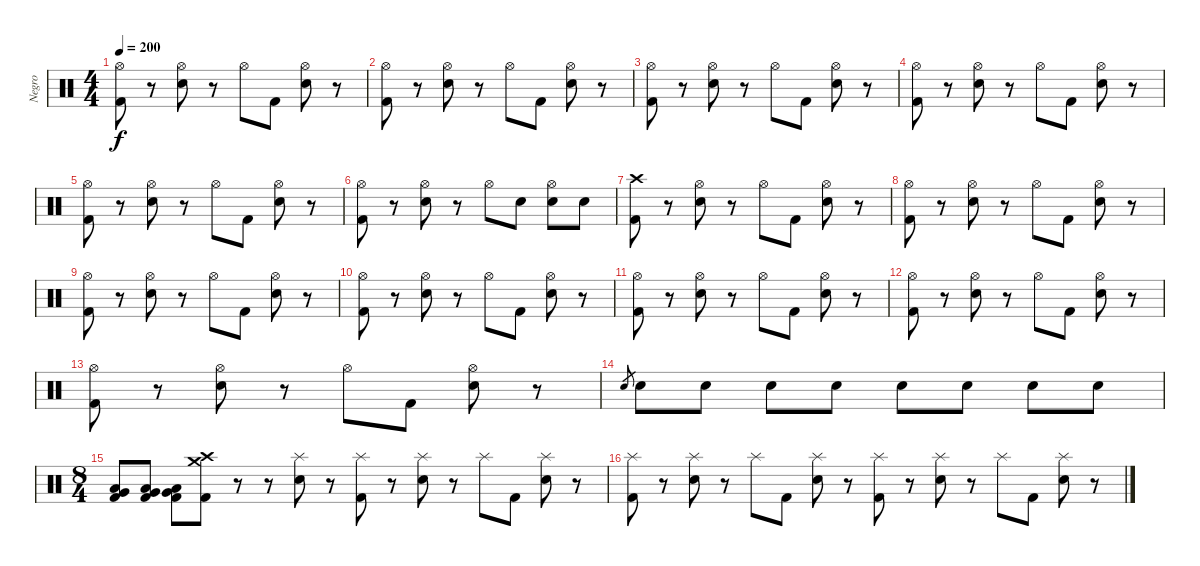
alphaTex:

\track ("Negro" "Negro") {instrument percussion}
\staff {score}
\articulation defaults
\ts (4 4)
\tempo 200
\clef neutral
\ks c
("Hi-Hat (open)" "Kick (hit) 2").8{dy f} r.8 ("Hi-Hat (open)" "Electric Snare (hit)").8 r.8 "Hi-Hat (open)".8 "Kick (hit) 2".8 ("Hi-Hat (open)" "Electric Snare (hit)").8 r.8 |
("Hi-Hat (open)" "Kick (hit) 2").8 r.8 ("Hi-Hat (open)" "Electric Snare (hit)").8 r.8 "Hi-Hat (open)".8 "Kick (hit) 2".8 ("Hi-Hat (open)" "Electric Snare (hit)").8 r.8 |
("Hi-Hat (open)" "Kick (hit) 2").8 r.8 ("Hi-Hat (open)" "Electric Snare (hit)").8 r.8 "Hi-Hat (open)".8 "Kick (hit) 2".8 ("Hi-Hat (open)" "Electric Snare (hit)").8 r.8 |
("Hi-Hat (open)" "Kick (hit) 2").8 r.8 ("Hi-Hat (open)" "Electric Snare (hit)").8 r.8 "Hi-Hat (open)".8 "Kick (hit) 2".8 ("Hi-Hat (open)" "Electric Snare (hit)").8 r.8 |
("Hi-Hat (open)" "Kick (hit) 2").8 r.8 ("Hi-Hat (open)" "Electric Snare (hit)").8 r.8 "Hi-Hat (open)".8 "Kick (hit) 2".8 ("Hi-Hat (open)" "Electric Snare (hit)").8 r.8 |
("Hi-Hat (open)" "Kick (hit) 2").8 r.8 ("Hi-Hat (open)" "Electric Snare (hit)").8 r.8 "Hi-Hat (open)".8 "Electric Snare (hit)".8 ("Hi-Hat (open)" "Electric Snare (hit)").8 "Electric Snare (hit)".8 |
("Crash high (hit)" "Kick (hit) 2").8 r.8 ("Hi-Hat (open)" "Electric Snare (hit)").8 r.8 "Hi-Hat (open)".8 "Kick (hit) 2".8 ("Hi-Hat (open)" "Electric Snare (hit)").8 r.8 |
("Hi-Hat (open)" "Kick (hit) 2").8 r.8 ("Hi-Hat (open)" "Electric Snare (hit)").8 r.8 "Hi-Hat (open)".8 "Kick (hit) 2".8 ("Hi-Hat (open)" "Electric Snare (hit)").8 r.8 |
("Hi-Hat (open)" "Kick (hit) 2").8 r.8 ("Hi-Hat (open)" "Electric Snare (hit)").8 r.8 "Hi-Hat (open)".8 "Kick (hit) 2".8 ("Hi-Hat (open)" "Electric Snare (hit)").8 r.8 |
("Hi-Hat (open)" "Kick (hit) 2").8 r.8 ("Hi-Hat (open)" "Electric Snare (hit)").8 r.8 "Hi-Hat (open)".8 "Kick (hit) 2".8 ("Hi-Hat (open)" "Electric Snare (hit)").8 r.8 |
("Hi-Hat (open)" "Kick (hit) 2").8 r.8 ("Hi-Hat (open)" "Electric Snare (hit)").8 r.8 "Hi-Hat (open)".8 "Kick (hit) 2".8 ("Hi-Hat (open)" "Electric Snare (hit)").8 r.8 |
("Hi-Hat (open)" "Kick (hit) 2").8 r.8 ("Hi-Hat (open)" "Electric Snare (hit)").8 r.8 "Hi-Hat (open)".8 "Kick (hit) 2".8 ("Hi-Hat (open)" "Electric Snare (hit)").8 r.8 |
("Hi-Hat (open)" "Kick (hit) 2").8 r.8 ("Hi-Hat (open)" "Electric Snare (hit)").8 r.8 "Hi-Hat (open)".8 "Kick (hit) 2".8 ("Hi-Hat (open)" "Electric Snare (hit)").8 r.8 |
"Electric Snare (hit)".8{gr} "Electric Snare (hit)".8 "Electric Snare (hit)".8 "Electric Snare (hit)".8 "Electric Snare (hit)".8 "Electric Snare (hit)".8 "Electric Snare (hit)".8 "Electric Snare (hit)".8 "Electric Snare (hit)".8 |
\ts (8 4)
("Very Low Tom (hit)" "Low Floor Tom (hit)" "Kick (hit) 2").8 ("Very Low Tom (hit)" "Low Floor Tom (hit)" "Kick (hit) 2").8 ("Very Low Tom (hit)" "Low Floor Tom (hit)" "Kick (hit) 2").8 ("Kick (hit) 2" "Crash medium (hit)" "Crash high (hit)").8 r.8 r.8 ("Splash (hit)" "Electric Snare (hit)").8 r.8 ("Splash (hit)" "Kick (hit) 2").8 r.8 ("Splash (hit)" "Electric Snare (hit)").8 r.8 "Splash (hit)".8 "Kick (hit) 2".8 ("Splash (hit)" "Electric Snare (hit)").8 r.8 |
("Splash (hit)" "Kick (hit) 2").8 r.8 ("Splash (hit)" "Electric Snare (hit)").8 r.8 "Splash (hit)".8 "Kick (hit) 2".8 ("Splash (hit)" "Electric Snare (hit)").8 r.8 ("Splash (hit)" "Kick (hit) 2").8 r.8 ("Splash (hit)" "Electric Snare (hit)").8 r.8 "Splash (hit)".8 "Kick (hit) 2".8 ("Splash (hit)" "Electric Snare (hit)").8 r.8
